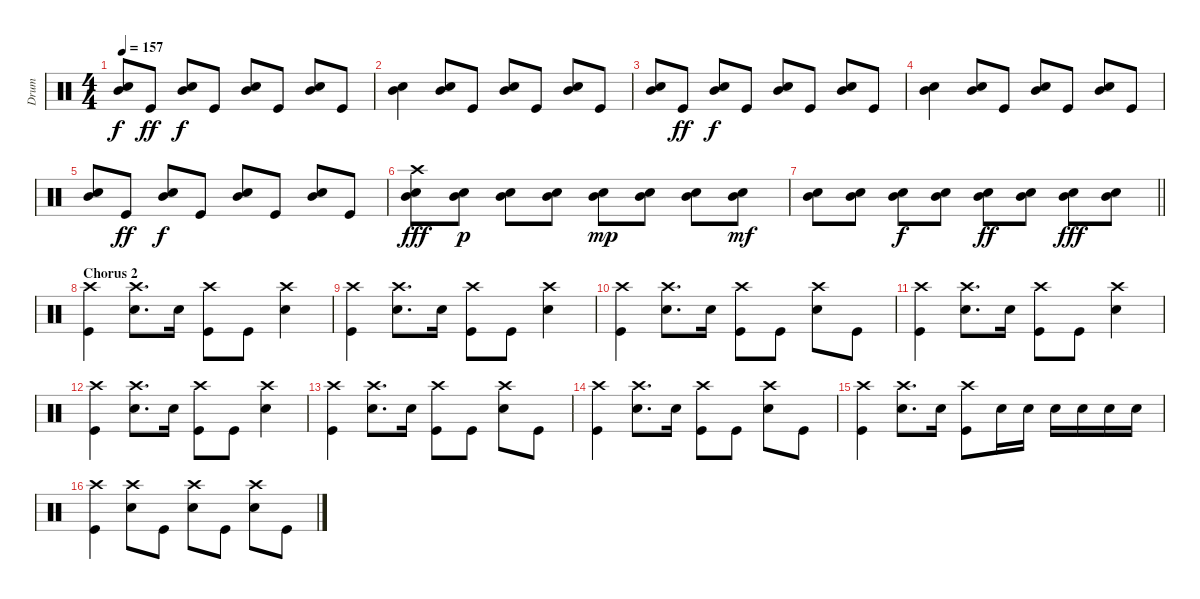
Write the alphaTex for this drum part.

\track ("Drum" "Drum") {instrument percussion}
\staff {score}
\articulation defaults
\ts (4 4)
\tempo 157
\clef neutral
\ks c
("Mid Tom (hit)" "Snare (hit) 2").8{dy f} "Kick (hit)".8{dy ff} ("Mid Tom (hit)" "Snare (hit) 2").8{dy f} "Kick (hit)".8 ("Mid Tom (hit)" "Snare (hit) 2").8 "Kick (hit)".8 ("Mid Tom (hit)" "Snare (hit) 2").8 "Kick (hit)".8 |
("Mid Tom (hit)" "Snare (hit) 2").4 ("Mid Tom (hit)" "Snare (hit) 2").8 "Kick (hit)".8 ("Mid Tom (hit)" "Snare (hit) 2").8 "Kick (hit)".8 ("Mid Tom (hit)" "Snare (hit) 2").8 "Kick (hit)".8 |
("Mid Tom (hit)" "Snare (hit) 2").8 "Kick (hit)".8{dy ff} ("Mid Tom (hit)" "Snare (hit) 2").8{dy f} "Kick (hit)".8 ("Mid Tom (hit)" "Snare (hit) 2").8 "Kick (hit)".8 ("Mid Tom (hit)" "Snare (hit) 2").8 "Kick (hit)".8 |
("Mid Tom (hit)" "Snare (hit) 2").4 ("Mid Tom (hit)" "Snare (hit) 2").8 "Kick (hit)".8 ("Mid Tom (hit)" "Snare (hit) 2").8 "Kick (hit)".8 ("Mid Tom (hit)" "Snare (hit) 2").8 "Kick (hit)".8 |
("Mid Tom (hit)" "Snare (hit) 2").8 "Kick (hit)".8{dy ff} ("Mid Tom (hit)" "Snare (hit) 2").8{dy f} "Kick (hit)".8 ("Mid Tom (hit)" "Snare (hit) 2").8 "Kick (hit)".8 ("Mid Tom (hit)" "Snare (hit) 2").8 "Kick (hit)".8 |
("Crash high (hit)" "Mid Tom (hit)" "Snare (hit) 2").8{dy fff} ("Mid Tom (hit)" "Snare (hit) 2").8{dy p} ("Mid Tom (hit)" "Snare (hit) 2").8 ("Mid Tom (hit)" "Snare (hit) 2").8 ("Mid Tom (hit)" "Snare (hit) 2").8{dy mp} ("Mid Tom (hit)" "Snare (hit) 2").8 ("Mid Tom (hit)" "Snare (hit) 2").8 ("Mid Tom (hit)" "Snare (hit) 2").8{dy mf} |
\barLineRight lightlight
("Mid Tom (hit)" "Snare (hit) 2").8 ("Mid Tom (hit)" "Snare (hit) 2").8 ("Mid Tom (hit)" "Snare (hit) 2").8{dy f} ("Mid Tom (hit)" "Snare (hit) 2").8 ("Mid Tom (hit)" "Snare (hit) 2").8{dy ff} ("Mid Tom (hit)" "Snare (hit) 2").8 ("Mid Tom (hit)" "Snare (hit) 2").8{dy fff} ("Mid Tom (hit)" "Snare (hit) 2").8 |
\section ("" "Chorus 2")
("Crash high (hit)" "Kick (hit)").4 ("Crash high (hit)" "Snare (hit) 2").8{d} "Snare (hit) 2".16 ("Crash high (hit)" "Kick (hit)").8 "Kick (hit)".8 ("Crash high (hit)" "Snare (hit) 2").4 |
("Crash high (hit)" "Kick (hit)").4 ("Crash high (hit)" "Snare (hit) 2").8{d} "Snare (hit) 2".16 ("Crash high (hit)" "Kick (hit)").8 "Kick (hit)".8 ("Crash high (hit)" "Snare (hit) 2").4 |
("Crash high (hit)" "Kick (hit)").4 ("Crash high (hit)" "Snare (hit) 2").8{d} "Snare (hit) 2".16 ("Crash high (hit)" "Kick (hit)").8 "Kick (hit)".8 ("Crash high (hit)" "Snare (hit) 2").8 "Kick (hit)".8 |
("Crash high (hit)" "Kick (hit)").4 ("Crash high (hit)" "Snare (hit) 2").8{d} "Snare (hit) 2".16 ("Crash high (hit)" "Kick (hit)").8 "Kick (hit)".8 ("Crash high (hit)" "Snare (hit) 2").4 |
("Crash high (hit)" "Kick (hit)").4 ("Crash high (hit)" "Snare (hit) 2").8{d} "Snare (hit) 2".16 ("Crash high (hit)" "Kick (hit)").8 "Kick (hit)".8 ("Crash high (hit)" "Snare (hit) 2").4 |
("Crash high (hit)" "Kick (hit)").4 ("Crash high (hit)" "Snare (hit) 2").8{d} "Snare (hit) 2".16 ("Crash high (hit)" "Kick (hit)").8 "Kick (hit)".8 ("Crash high (hit)" "Snare (hit) 2").8 "Kick (hit)".8 |
("Crash high (hit)" "Kick (hit)").4 ("Crash high (hit)" "Snare (hit) 2").8{d} "Snare (hit) 2".16 ("Crash high (hit)" "Kick (hit)").8 "Kick (hit)".8 ("Crash high (hit)" "Snare (hit) 2").8 "Kick (hit)".8 |
("Crash high (hit)" "Kick (hit)").4 ("Crash high (hit)" "Snare (hit) 2").8{d} "Snare (hit) 2".16 ("Crash high (hit)" "Kick (hit)").8 "Snare (hit) 2".16 "Snare (hit) 2".16 "Snare (hit) 2".16 "Snare (hit) 2".16 "Snare (hit) 2".16 "Snare (hit) 2".16 |
("Crash high (hit)" "Kick (hit)").4 ("Crash high (hit)" "Snare (hit) 2").8 "Kick (hit)".8 ("Crash high (hit)" "Snare (hit) 2").8 "Kick (hit)".8 ("Crash high (hit)" "Snare (hit) 2").8 "Kick (hit)".8
